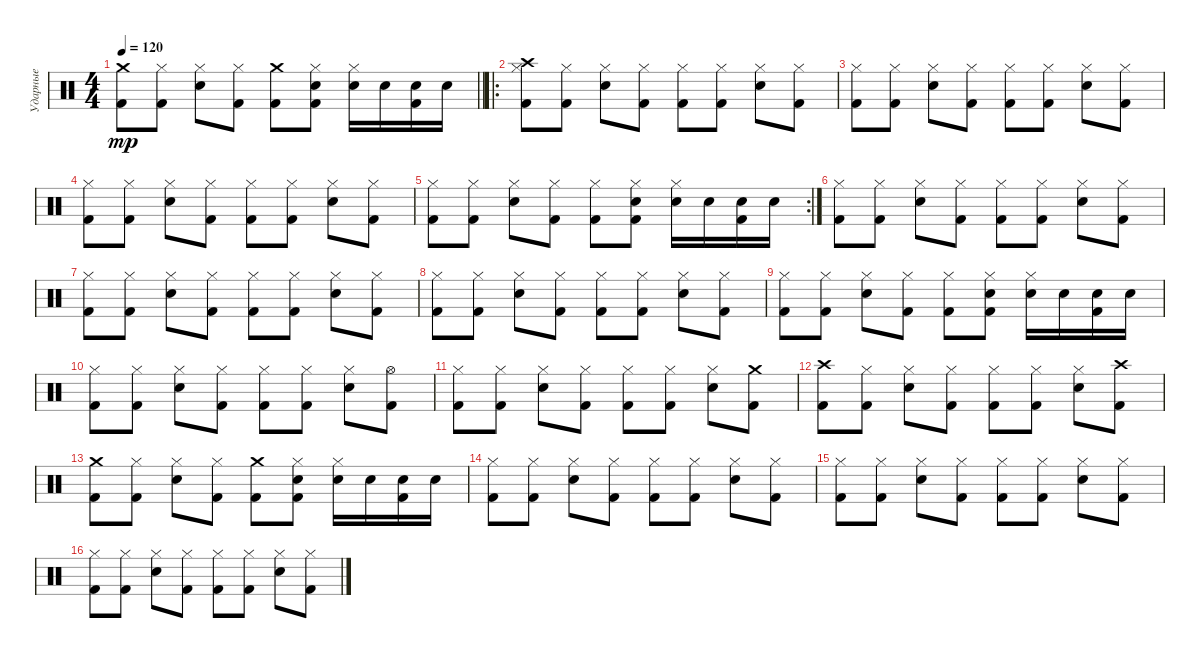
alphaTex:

\track ("Ударные" "Ударные") {instrument percussion}
\staff {score}
\articulation defaults
\ts (4 4)
\tempo 120
\clef neutral
\barLineRight lightlight
\ks c
("Kick (hit) 2" "Crash medium (hit)").8{dy mp} ("Kick (hit) 2" "Hi-Hat (closed)").8 ("Snare (hit) 2" "Hi-Hat (closed)").8 ("Kick (hit) 2" "Hi-Hat (closed)").8 ("Kick (hit) 2" "Crash medium (hit)").8 ("Kick (hit) 2" "Snare (hit) 2" "Hi-Hat (closed)").8 ("Snare (hit) 2" "Hi-Hat (closed)").16 "Snare (hit) 2".16 ("Kick (hit) 2" "Snare (hit) 2").16 "Snare (hit) 2".16 |
\ro
("Kick (hit) 2" "Hi-Hat (closed)" "Crash high (hit)").8 ("Kick (hit) 2" "Hi-Hat (closed)").8 ("Snare (hit) 2" "Hi-Hat (closed)").8 ("Kick (hit) 2" "Hi-Hat (closed)").8 ("Kick (hit) 2" "Hi-Hat (closed)").8 ("Kick (hit) 2" "Hi-Hat (closed)").8 ("Snare (hit) 2" "Hi-Hat (closed)").8 ("Kick (hit) 2" "Hi-Hat (closed)").8 |
("Kick (hit) 2" "Hi-Hat (closed)").8 ("Kick (hit) 2" "Hi-Hat (closed)").8 ("Snare (hit) 2" "Hi-Hat (closed)").8 ("Kick (hit) 2" "Hi-Hat (closed)").8 ("Kick (hit) 2" "Hi-Hat (closed)").8 ("Kick (hit) 2" "Hi-Hat (closed)").8 ("Snare (hit) 2" "Hi-Hat (closed)").8 ("Kick (hit) 2" "Hi-Hat (closed)").8 |
("Kick (hit) 2" "Hi-Hat (closed)").8 ("Kick (hit) 2" "Hi-Hat (closed)").8 ("Snare (hit) 2" "Hi-Hat (closed)").8 ("Kick (hit) 2" "Hi-Hat (closed)").8 ("Kick (hit) 2" "Hi-Hat (closed)").8 ("Kick (hit) 2" "Hi-Hat (closed)").8 ("Snare (hit) 2" "Hi-Hat (closed)").8 ("Kick (hit) 2" "Hi-Hat (closed)").8 |
\rc 2
("Kick (hit) 2" "Hi-Hat (closed)").8 ("Kick (hit) 2" "Hi-Hat (closed)").8 ("Snare (hit) 2" "Hi-Hat (closed)").8 ("Kick (hit) 2" "Hi-Hat (closed)").8 ("Kick (hit) 2" "Hi-Hat (closed)").8 ("Kick (hit) 2" "Snare (hit) 2" "Hi-Hat (closed)").8 ("Snare (hit) 2" "Hi-Hat (closed)").16 "Snare (hit) 2".16 ("Kick (hit) 2" "Snare (hit) 2").16 "Snare (hit) 2".16 |
("Kick (hit) 2" "Hi-Hat (closed)").8 ("Kick (hit) 2" "Hi-Hat (closed)").8 ("Snare (hit) 2" "Hi-Hat (closed)").8 ("Kick (hit) 2" "Hi-Hat (closed)").8 ("Kick (hit) 2" "Hi-Hat (closed)").8 ("Kick (hit) 2" "Hi-Hat (closed)").8 ("Snare (hit) 2" "Hi-Hat (closed)").8 ("Kick (hit) 2" "Hi-Hat (closed)").8 |
("Kick (hit) 2" "Hi-Hat (closed)").8 ("Kick (hit) 2" "Hi-Hat (closed)").8 ("Snare (hit) 2" "Hi-Hat (closed)").8 ("Kick (hit) 2" "Hi-Hat (closed)").8 ("Kick (hit) 2" "Hi-Hat (closed)").8 ("Kick (hit) 2" "Hi-Hat (closed)").8 ("Snare (hit) 2" "Hi-Hat (closed)").8 ("Kick (hit) 2" "Hi-Hat (closed)").8 |
("Kick (hit) 2" "Hi-Hat (closed)").8 ("Kick (hit) 2" "Hi-Hat (closed)").8 ("Snare (hit) 2" "Hi-Hat (closed)").8 ("Kick (hit) 2" "Hi-Hat (closed)").8 ("Kick (hit) 2" "Hi-Hat (closed)").8 ("Kick (hit) 2" "Hi-Hat (closed)").8 ("Snare (hit) 2" "Hi-Hat (closed)").8 ("Kick (hit) 2" "Hi-Hat (closed)").8 |
("Kick (hit) 2" "Hi-Hat (closed)").8 ("Kick (hit) 2" "Hi-Hat (closed)").8 ("Snare (hit) 2" "Hi-Hat (closed)").8 ("Kick (hit) 2" "Hi-Hat (closed)").8 ("Kick (hit) 2" "Hi-Hat (closed)").8 ("Kick (hit) 2" "Snare (hit) 2" "Hi-Hat (closed)").8 ("Snare (hit) 2" "Hi-Hat (closed)").16 "Snare (hit) 2".16 ("Kick (hit) 2" "Snare (hit) 2").16 "Snare (hit) 2".16 |
("Kick (hit) 2" "Hi-Hat (closed)").8 ("Kick (hit) 2" "Hi-Hat (closed)").8 ("Snare (hit) 2" "Hi-Hat (closed)").8 ("Kick (hit) 2" "Hi-Hat (closed)").8 ("Kick (hit) 2" "Hi-Hat (closed)").8 ("Kick (hit) 2" "Hi-Hat (closed)").8 ("Snare (hit) 2" "Hi-Hat (closed)").8 ("Kick (hit) 2" "Hi-Hat (open)").8 |
("Kick (hit) 2" "Hi-Hat (closed)").8 ("Kick (hit) 2" "Hi-Hat (closed)").8 ("Snare (hit) 2" "Hi-Hat (closed)").8 ("Kick (hit) 2" "Hi-Hat (closed)").8 ("Kick (hit) 2" "Hi-Hat (closed)").8 ("Kick (hit) 2" "Hi-Hat (closed)").8 ("Snare (hit) 2" "Hi-Hat (closed)").8 ("Kick (hit) 2" "Crash medium (hit)").8 |
("Kick (hit) 2" "Crash high (hit)").8 ("Kick (hit) 2" "Hi-Hat (closed)").8 ("Snare (hit) 2" "Hi-Hat (closed)").8 ("Kick (hit) 2" "Hi-Hat (closed)").8 ("Kick (hit) 2" "Hi-Hat (closed)").8 ("Kick (hit) 2" "Hi-Hat (closed)").8 ("Snare (hit) 2" "Hi-Hat (closed)").8 ("Kick (hit) 2" "Crash high (hit)").8 |
("Kick (hit) 2" "Crash medium (hit)").8 ("Kick (hit) 2" "Hi-Hat (closed)").8 ("Snare (hit) 2" "Hi-Hat (closed)").8 ("Kick (hit) 2" "Hi-Hat (closed)").8 ("Kick (hit) 2" "Crash medium (hit)").8 ("Kick (hit) 2" "Snare (hit) 2" "Hi-Hat (closed)").8 ("Snare (hit) 2" "Hi-Hat (closed)").16 "Snare (hit) 2".16 ("Kick (hit) 2" "Snare (hit) 2").16 "Snare (hit) 2".16 |
("Kick (hit) 2" "Hi-Hat (closed)").8 ("Kick (hit) 2" "Hi-Hat (closed)").8 ("Snare (hit) 2" "Hi-Hat (closed)").8 ("Kick (hit) 2" "Hi-Hat (closed)").8 ("Kick (hit) 2" "Hi-Hat (closed)").8 ("Kick (hit) 2" "Hi-Hat (closed)").8 ("Snare (hit) 2" "Hi-Hat (closed)").8 ("Kick (hit) 2" "Hi-Hat (closed)").8 |
("Kick (hit) 2" "Hi-Hat (closed)").8 ("Kick (hit) 2" "Hi-Hat (closed)").8 ("Snare (hit) 2" "Hi-Hat (closed)").8 ("Kick (hit) 2" "Hi-Hat (closed)").8 ("Kick (hit) 2" "Hi-Hat (closed)").8 ("Kick (hit) 2" "Hi-Hat (closed)").8 ("Snare (hit) 2" "Hi-Hat (closed)").8 ("Kick (hit) 2" "Hi-Hat (closed)").8 |
("Kick (hit) 2" "Hi-Hat (closed)").8 ("Kick (hit) 2" "Hi-Hat (closed)").8 ("Snare (hit) 2" "Hi-Hat (closed)").8 ("Kick (hit) 2" "Hi-Hat (closed)").8 ("Kick (hit) 2" "Hi-Hat (closed)").8 ("Kick (hit) 2" "Hi-Hat (closed)").8 ("Snare (hit) 2" "Hi-Hat (closed)").8 ("Kick (hit) 2" "Hi-Hat (closed)").8
